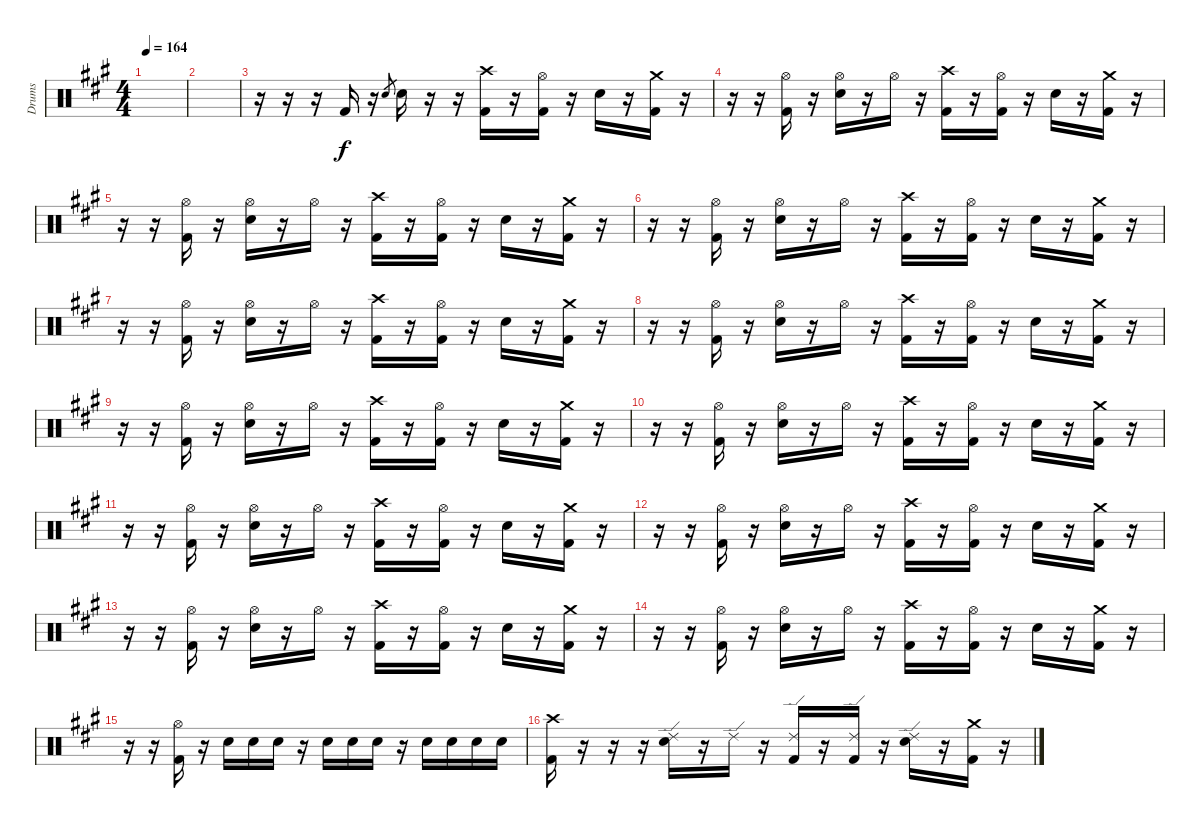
\track ("Drums" "Drums") {instrument percussion}
\staff {score}
\articulation defaults
\ts (4 4)
\tempo 164
\clef neutral
\ks a
|
|
r.16 r.16 r.16 "Kick (hit) 2".16 r.16 "Electric Snare (hit)".8{gr} "Electric Snare (hit)".16 r.16 r.16 ("Crash high (hit)" "Kick (hit) 2").16 r.16 ("Hi-Hat (open)" "Kick (hit) 2").16 r.16 "Electric Snare (hit)".16 r.16 ("Crash medium (hit)" "Kick (hit) 2").16 r.16 |
r.16 r.16 ("Hi-Hat (open)" "Kick (hit) 2").16 r.16 ("Hi-Hat (open)" "Electric Snare (hit)").16 r.16 "Hi-Hat (open)".16 r.16 ("Crash high (hit)" "Kick (hit) 2").16 r.16 ("Hi-Hat (open)" "Kick (hit) 2").16 r.16 "Electric Snare (hit)".16 r.16 ("Crash medium (hit)" "Kick (hit) 2").16 r.16 |
r.16 r.16 ("Hi-Hat (open)" "Kick (hit) 2").16 r.16 ("Hi-Hat (open)" "Electric Snare (hit)").16 r.16 "Hi-Hat (open)".16 r.16 ("Crash high (hit)" "Kick (hit) 2").16 r.16 ("Hi-Hat (open)" "Kick (hit) 2").16 r.16 "Electric Snare (hit)".16 r.16 ("Crash medium (hit)" "Kick (hit) 2").16 r.16 |
r.16 r.16 ("Hi-Hat (open)" "Kick (hit) 2").16 r.16 ("Hi-Hat (open)" "Electric Snare (hit)").16 r.16 "Hi-Hat (open)".16 r.16 ("Crash high (hit)" "Kick (hit) 2").16 r.16 ("Hi-Hat (open)" "Kick (hit) 2").16 r.16 "Electric Snare (hit)".16 r.16 ("Crash medium (hit)" "Kick (hit) 2").16 r.16 |
r.16 r.16 ("Hi-Hat (open)" "Kick (hit) 2").16 r.16 ("Hi-Hat (open)" "Electric Snare (hit)").16 r.16 "Hi-Hat (open)".16 r.16 ("Crash high (hit)" "Kick (hit) 2").16 r.16 ("Hi-Hat (open)" "Kick (hit) 2").16 r.16 "Electric Snare (hit)".16 r.16 ("Crash medium (hit)" "Kick (hit) 2").16 r.16 |
r.16 r.16 ("Hi-Hat (open)" "Kick (hit) 2").16 r.16 ("Hi-Hat (open)" "Electric Snare (hit)").16 r.16 "Hi-Hat (open)".16 r.16 ("Crash high (hit)" "Kick (hit) 2").16 r.16 ("Hi-Hat (open)" "Kick (hit) 2").16 r.16 "Electric Snare (hit)".16 r.16 ("Crash medium (hit)" "Kick (hit) 2").16 r.16 |
r.16 r.16 ("Hi-Hat (open)" "Kick (hit) 2").16 r.16 ("Hi-Hat (open)" "Electric Snare (hit)").16 r.16 "Hi-Hat (open)".16 r.16 ("Crash high (hit)" "Kick (hit) 2").16 r.16 ("Hi-Hat (open)" "Kick (hit) 2").16 r.16 "Electric Snare (hit)".16 r.16 ("Crash medium (hit)" "Kick (hit) 2").16 r.16 |
r.16 r.16 ("Hi-Hat (open)" "Kick (hit) 2").16 r.16 ("Hi-Hat (open)" "Electric Snare (hit)").16 r.16 "Hi-Hat (open)".16 r.16 ("Crash high (hit)" "Kick (hit) 2").16 r.16 ("Hi-Hat (open)" "Kick (hit) 2").16 r.16 "Electric Snare (hit)".16 r.16 ("Crash medium (hit)" "Kick (hit) 2").16 r.16 |
r.16 r.16 ("Hi-Hat (open)" "Kick (hit) 2").16 r.16 ("Hi-Hat (open)" "Electric Snare (hit)").16 r.16 "Hi-Hat (open)".16 r.16 ("Crash high (hit)" "Kick (hit) 2").16 r.16 ("Hi-Hat (open)" "Kick (hit) 2").16 r.16 "Electric Snare (hit)".16 r.16 ("Crash medium (hit)" "Kick (hit) 2").16 r.16 |
r.16 r.16 ("Hi-Hat (open)" "Kick (hit) 2").16 r.16 ("Hi-Hat (open)" "Electric Snare (hit)").16 r.16 "Hi-Hat (open)".16 r.16 ("Crash high (hit)" "Kick (hit) 2").16 r.16 ("Hi-Hat (open)" "Kick (hit) 2").16 r.16 "Electric Snare (hit)".16 r.16 ("Crash medium (hit)" "Kick (hit) 2").16 r.16 |
r.16 r.16 ("Hi-Hat (open)" "Kick (hit) 2").16 r.16 ("Hi-Hat (open)" "Electric Snare (hit)").16 r.16 "Hi-Hat (open)".16 r.16 ("Crash high (hit)" "Kick (hit) 2").16 r.16 ("Hi-Hat (open)" "Kick (hit) 2").16 r.16 "Electric Snare (hit)".16 r.16 ("Crash medium (hit)" "Kick (hit) 2").16 r.16 |
r.16 r.16 ("Hi-Hat (open)" "Kick (hit) 2").16 r.16 ("Hi-Hat (open)" "Electric Snare (hit)").16 r.16 "Hi-Hat (open)".16 r.16 ("Crash high (hit)" "Kick (hit) 2").16 r.16 ("Hi-Hat (open)" "Kick (hit) 2").16 r.16 "Electric Snare (hit)".16 r.16 ("Crash medium (hit)" "Kick (hit) 2").16 r.16 |
r.16 r.16 ("Hi-Hat (open)" "Kick (hit) 2").16 r.16 "Electric Snare (hit)".16 "Electric Snare (hit)".16 "Electric Snare (hit)".16 r.16 "Electric Snare (hit)".16 "Electric Snare (hit)".16 "Electric Snare (hit)".16 r.16 "Electric Snare (hit)".16 "Electric Snare (hit)".16 "Electric Snare (hit)".16 "Electric Snare (hit)".16 |
("Crash high (hit)" "Kick (hit) 2").16 r.16 r.16 r.16 ("Ride (edge) 2" "Electric Snare (hit)").16 r.16 "Ride (edge) 2".16 r.16 ("Ride (edge) 2" "Kick (hit) 2").16 r.16 ("Ride (edge) 2" "Kick (hit) 2").16 r.16 ("Ride (edge) 2" "Electric Snare (hit)").16 r.16 ("Crash medium (hit)" "Kick (hit) 2").16 r.16
